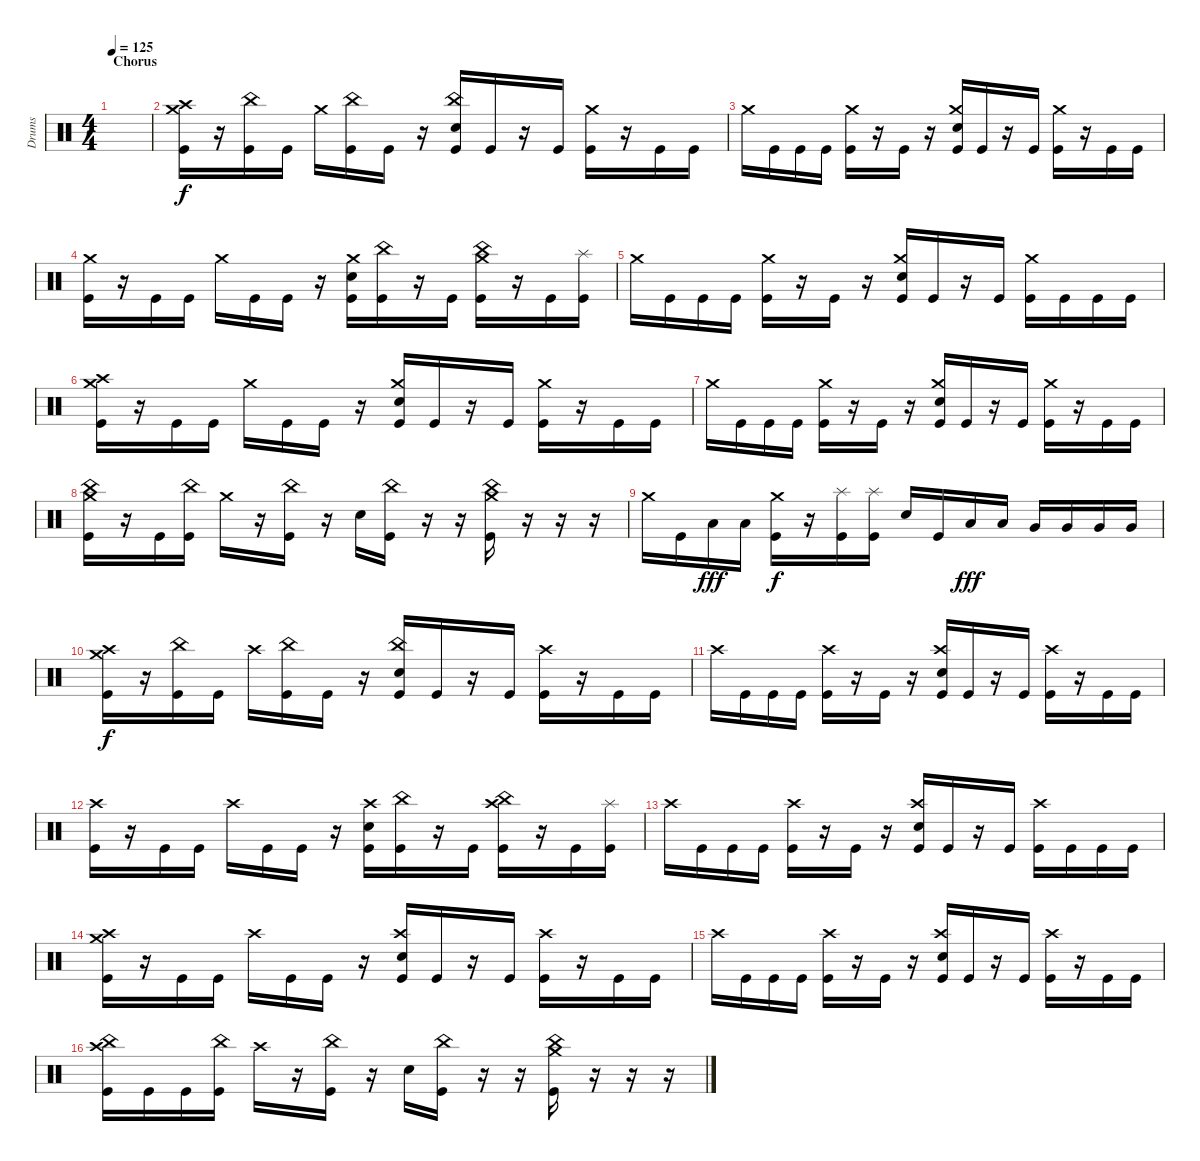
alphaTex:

\track ("Drums" "Drums") {instrument percussion}
\staff {score}
\articulation defaults
\ts (4 4)
\section ("" "Chorus")
\tempo 125
\clef neutral
\ks c
|
("Kick (hit)" "Crash high (hit)" "Crash medium (hit)").16 r.16 ("Kick (hit)" "China (hit)").16 "Kick (hit)".16 "Crash medium (hit)".16 ("Kick (hit)" "China (hit)").16 "Kick (hit)".16 r.16 ("Kick (hit)" "Snare (hit) 2" "China (hit)").16 "Kick (hit)".16 r.16 "Kick (hit)".16 ("Kick (hit)" "Crash medium (hit)").16 r.16 "Kick (hit)".16 "Kick (hit)".16 |
"Crash medium (hit)".16 "Kick (hit)".16 "Kick (hit)".16 "Kick (hit)".16 ("Crash medium (hit)" "Kick (hit)").16 r.16 "Kick (hit)".16 r.16 ("Crash medium (hit)" "Snare (hit) 2" "Kick (hit)").16 "Kick (hit)".16 r.16 "Kick (hit)".16 ("Crash medium (hit)" "Kick (hit)").16 r.16 "Kick (hit)".16 "Kick (hit)".16 |
("Kick (hit)" "Crash medium (hit)").16 r.16 "Kick (hit)".16 "Kick (hit)".16 "Crash medium (hit)".16 "Kick (hit)".16 "Kick (hit)".16 r.16 ("Kick (hit)" "Snare (hit) 2" "Crash medium (hit)").16 ("Kick (hit)" "China (hit)").16 r.16 "Kick (hit)".16 ("Kick (hit)" "Crash medium (hit)" "China (hit)").16 r.16 "Kick (hit)".16 ("Kick (hit)" "Splash (hit)").16 |
"Crash medium (hit)".16 "Kick (hit)".16 "Kick (hit)".16 "Kick (hit)".16 ("Crash medium (hit)" "Kick (hit)").16 r.16 "Kick (hit)".16 r.16 ("Crash medium (hit)" "Snare (hit) 2" "Kick (hit)").16 "Kick (hit)".16 r.16 "Kick (hit)".16 ("Crash medium (hit)" "Kick (hit)").16 "Kick (hit)".16 "Kick (hit)".16 "Kick (hit)".16 |
("Kick (hit)" "Crash high (hit)" "Crash medium (hit)").16 r.16 "Kick (hit)".16 "Kick (hit)".16 "Crash medium (hit)".16 "Kick (hit)".16 "Kick (hit)".16 r.16 ("Kick (hit)" "Snare (hit) 2" "Crash medium (hit)").16 "Kick (hit)".16 r.16 "Kick (hit)".16 ("Kick (hit)" "Crash medium (hit)").16 r.16 "Kick (hit)".16 "Kick (hit)".16 |
"Crash medium (hit)".16 "Kick (hit)".16 "Kick (hit)".16 "Kick (hit)".16 ("Crash medium (hit)" "Kick (hit)").16 r.16 "Kick (hit)".16 r.16 ("Crash medium (hit)" "Snare (hit) 2" "Kick (hit)").16 "Kick (hit)".16 r.16 "Kick (hit)".16 ("Crash medium (hit)" "Kick (hit)").16 r.16 "Kick (hit)".16 "Kick (hit)".16 |
("Kick (hit)" "Crash medium (hit)" "China (hit)").16 r.16 "Kick (hit)".16 ("Kick (hit)" "China (hit)").16 "Crash medium (hit)".16 r.16 ("Kick (hit)" "China (hit)").16 r.16 "Snare (hit) 2".16 ("Kick (hit)" "China (hit)").16 r.16 r.16 ("Kick (hit)" "Crash medium (hit)" "China (hit)").16 r.16 r.16 r.16 |
"Crash medium (hit)".16 "Kick (hit)".16 "Low Tom (hit)".16{dy fff} "Low Tom (hit)".16 ("Crash medium (hit)" "Kick (hit)").16{dy f} r.16 ("Splash (hit)" "Kick (hit)").16 ("Splash (hit)" "Kick (hit)").16 "Snare (hit) 2".16 "Kick (hit)".16 "Low Tom (hit)".16{dy fff} "Low Tom (hit)".16 "Very Low Tom (hit)".16 "Very Low Tom (hit)".16 "Very Low Tom (hit)".16 "Very Low Tom (hit)".16 |
("Kick (hit)" "Crash high (hit)" "Crash medium (hit)").16{dy f} r.16 ("Kick (hit)" "China (hit)").16 "Kick (hit)".16 "Crash high (hit)".16 ("Kick (hit)" "China (hit)").16 "Kick (hit)".16 r.16 ("Kick (hit)" "Snare (hit) 2" "China (hit)").16 "Kick (hit)".16 r.16 "Kick (hit)".16 ("Kick (hit)" "Crash high (hit)").16 r.16 "Kick (hit)".16 "Kick (hit)".16 |
"Crash high (hit)".16 "Kick (hit)".16 "Kick (hit)".16 "Kick (hit)".16 ("Kick (hit)" "Crash high (hit)").16 r.16 "Kick (hit)".16 r.16 ("Snare (hit) 2" "Kick (hit)" "Crash high (hit)").16 "Kick (hit)".16 r.16 "Kick (hit)".16 ("Kick (hit)" "Crash high (hit)").16 r.16 "Kick (hit)".16 "Kick (hit)".16 |
("Kick (hit)" "Crash high (hit)").16 r.16 "Kick (hit)".16 "Kick (hit)".16 "Crash high (hit)".16 "Kick (hit)".16 "Kick (hit)".16 r.16 ("Kick (hit)" "Snare (hit) 2" "Crash high (hit)").16 ("Kick (hit)" "China (hit)").16 r.16 "Kick (hit)".16 ("Kick (hit)" "China (hit)" "Crash high (hit)").16 r.16 "Kick (hit)".16 ("Kick (hit)" "Splash (hit)").16 |
"Crash high (hit)".16 "Kick (hit)".16 "Kick (hit)".16 "Kick (hit)".16 ("Kick (hit)" "Crash high (hit)").16 r.16 "Kick (hit)".16 r.16 ("Snare (hit) 2" "Kick (hit)" "Crash high (hit)").16 "Kick (hit)".16 r.16 "Kick (hit)".16 ("Kick (hit)" "Crash high (hit)").16 "Kick (hit)".16 "Kick (hit)".16 "Kick (hit)".16 |
("Kick (hit)" "Crash high (hit)" "Crash medium (hit)").16 r.16 "Kick (hit)".16 "Kick (hit)".16 "Crash high (hit)".16 "Kick (hit)".16 "Kick (hit)".16 r.16 ("Kick (hit)" "Snare (hit) 2" "Crash high (hit)").16 "Kick (hit)".16 r.16 "Kick (hit)".16 ("Kick (hit)" "Crash high (hit)").16 r.16 "Kick (hit)".16 "Kick (hit)".16 |
"Crash high (hit)".16 "Kick (hit)".16 "Kick (hit)".16 "Kick (hit)".16 ("Kick (hit)" "Crash high (hit)").16 r.16 "Kick (hit)".16 r.16 ("Snare (hit) 2" "Kick (hit)" "Crash high (hit)").16 "Kick (hit)".16 r.16 "Kick (hit)".16 ("Kick (hit)" "Crash high (hit)").16 r.16 "Kick (hit)".16 "Kick (hit)".16 |
("Kick (hit)" "China (hit)" "Crash high (hit)").16 "Kick (hit)".16 "Kick (hit)".16 ("Kick (hit)" "China (hit)").16 "Crash high (hit)".16 r.16 ("Kick (hit)" "China (hit)").16 r.16 "Snare (hit) 2".16 ("Kick (hit)" "China (hit)").16 r.16 r.16 ("Kick (hit)" "China (hit)" "Crash medium (hit)").16 r.16 r.16 r.16
